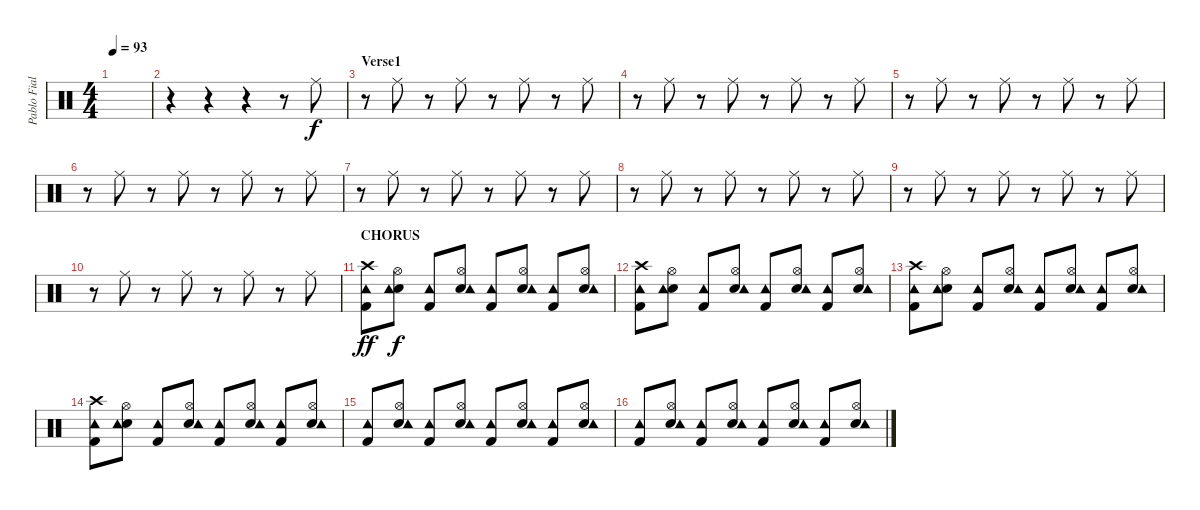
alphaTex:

\track ("Pablo Fiallo" "Pablo Fial") {instrument percussion}
\staff {score}
\articulation defaults
\ts (4 4)
\tempo 93
\clef neutral
\ks c
|
r.4 r.4 r.4 r.8 "Ride (middle)".8 |
\section ("" "Verse1")
r.8 "Ride (middle)".8 r.8 "Ride (middle)".8 r.8 "Ride (middle)".8 r.8 "Ride (middle)".8 |
r.8 "Ride (middle)".8 r.8 "Ride (middle)".8 r.8 "Ride (middle)".8 r.8 "Ride (middle)".8 |
r.8 "Ride (middle)".8 r.8 "Ride (middle)".8 r.8 "Ride (middle)".8 r.8 "Ride (middle)".8 |
r.8 "Ride (middle)".8 r.8 "Ride (middle)".8 r.8 "Ride (middle)".8 r.8 "Ride (middle)".8 |
r.8 "Ride (middle)".8 r.8 "Ride (middle)".8 r.8 "Ride (middle)".8 r.8 "Ride (middle)".8 |
r.8 "Ride (middle)".8 r.8 "Ride (middle)".8 r.8 "Ride (middle)".8 r.8 "Ride (middle)".8 |
r.8 "Ride (middle)".8 r.8 "Ride (middle)".8 r.8 "Ride (middle)".8 r.8 "Ride (middle)".8 |
r.8 "Ride (middle)".8 r.8 "Ride (middle)".8 r.8 "Ride (middle)".8 r.8 "Ride (middle)".8 |
\section ("" "CHORUS")
("Crash high (hit)" "Kick (hit) 2" "Tambourine (hit)").8{dy ff} ("Hi-Hat (open)" "Snare (hit) 2" "Tambourine (hit)").8{dy f} ("Kick (hit) 2" "Tambourine (hit)").8 ("Hi-Hat (open)" "Snare (hit) 2" "Tambourine (hit)").8 ("Kick (hit) 2" "Tambourine (hit)").8 ("Hi-Hat (open)" "Snare (hit) 2" "Tambourine (hit)").8 ("Kick (hit) 2" "Tambourine (hit)").8 ("Hi-Hat (open)" "Snare (hit) 2" "Tambourine (hit)").8 |
("Crash high (hit)" "Kick (hit) 2" "Tambourine (hit)").8 ("Hi-Hat (open)" "Snare (hit) 2" "Tambourine (hit)").8 ("Kick (hit) 2" "Tambourine (hit)").8 ("Hi-Hat (open)" "Snare (hit) 2" "Tambourine (hit)").8 ("Kick (hit) 2" "Tambourine (hit)").8 ("Hi-Hat (open)" "Snare (hit) 2" "Tambourine (hit)").8 ("Kick (hit) 2" "Tambourine (hit)").8 ("Hi-Hat (open)" "Snare (hit) 2" "Tambourine (hit)").8 |
("Crash high (hit)" "Kick (hit) 2" "Tambourine (hit)").8 ("Hi-Hat (open)" "Snare (hit) 2" "Tambourine (hit)").8 ("Kick (hit) 2" "Tambourine (hit)").8 ("Hi-Hat (open)" "Snare (hit) 2" "Tambourine (hit)").8 ("Kick (hit) 2" "Tambourine (hit)").8 ("Hi-Hat (open)" "Snare (hit) 2" "Tambourine (hit)").8 ("Kick (hit) 2" "Tambourine (hit)").8 ("Hi-Hat (open)" "Snare (hit) 2" "Tambourine (hit)").8 |
("Crash high (hit)" "Kick (hit) 2" "Tambourine (hit)").8 ("Hi-Hat (open)" "Snare (hit) 2" "Tambourine (hit)").8 ("Kick (hit) 2" "Tambourine (hit)").8 ("Hi-Hat (open)" "Snare (hit) 2" "Tambourine (hit)").8 ("Kick (hit) 2" "Tambourine (hit)").8 ("Hi-Hat (open)" "Snare (hit) 2" "Tambourine (hit)").8 ("Kick (hit) 2" "Tambourine (hit)").8 ("Hi-Hat (open)" "Snare (hit) 2" "Tambourine (hit)").8 |
("Kick (hit) 2" "Tambourine (hit)").8 ("Hi-Hat (open)" "Snare (hit) 2" "Tambourine (hit)").8 ("Kick (hit) 2" "Tambourine (hit)").8 ("Hi-Hat (open)" "Snare (hit) 2" "Tambourine (hit)").8 ("Kick (hit) 2" "Tambourine (hit)").8 ("Hi-Hat (open)" "Snare (hit) 2" "Tambourine (hit)").8 ("Kick (hit) 2" "Tambourine (hit)").8 ("Hi-Hat (open)" "Snare (hit) 2" "Tambourine (hit)").8 |
("Kick (hit) 2" "Tambourine (hit)").8 ("Hi-Hat (open)" "Snare (hit) 2" "Tambourine (hit)").8 ("Kick (hit) 2" "Tambourine (hit)").8 ("Hi-Hat (open)" "Snare (hit) 2" "Tambourine (hit)").8 ("Kick (hit) 2" "Tambourine (hit)").8 ("Hi-Hat (open)" "Snare (hit) 2" "Tambourine (hit)").8 ("Kick (hit) 2" "Tambourine (hit)").8 ("Hi-Hat (open)" "Snare (hit) 2" "Tambourine (hit)").8
